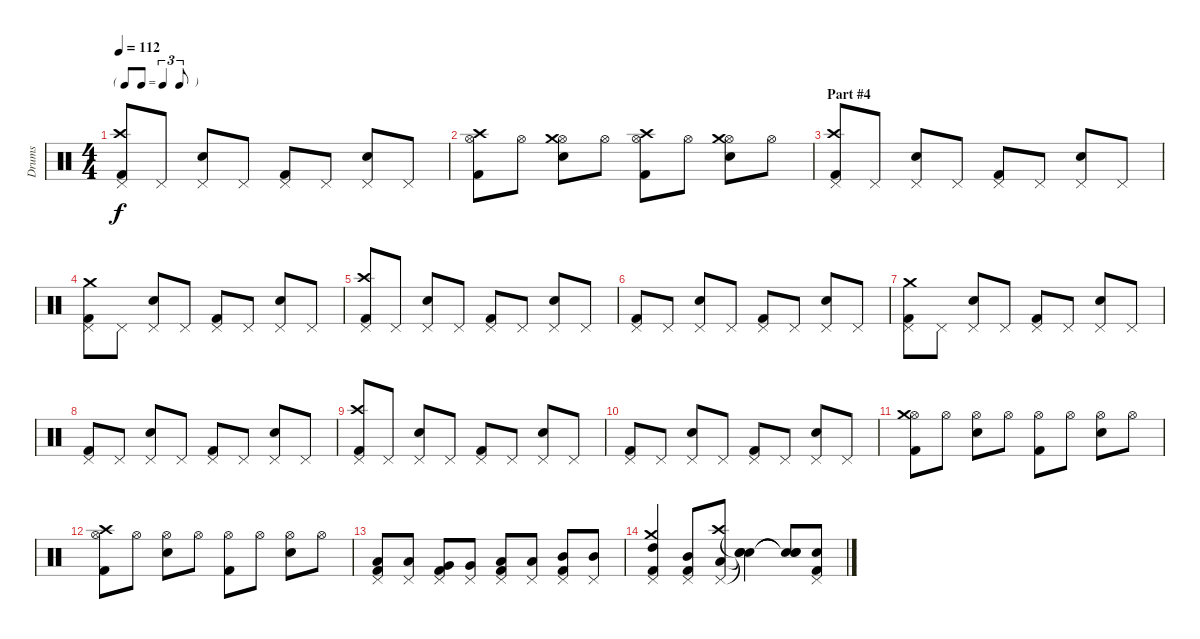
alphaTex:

\track ("Drums" "Drums") {instrument percussion}
\staff {score}
\articulation defaults
\ts (4 4)
\tf triplet8th
\tempo 112
\clef neutral
\ks c
("Pedal Hi-Hat (hit)" "Crash high (hit)" "Kick (hit) 2").8{dy f} "Pedal Hi-Hat (hit)".8 ("Pedal Hi-Hat (hit)" "Snare (hit) 2").8 "Pedal Hi-Hat (hit)".8 ("Pedal Hi-Hat (hit)" "Kick (hit) 2").8 "Pedal Hi-Hat (hit)".8 ("Pedal Hi-Hat (hit)" "Snare (hit) 2").8 "Pedal Hi-Hat (hit)".8 |
("Hi-Hat (open)" "Crash high (hit)" "Kick (hit) 2").8 "Hi-Hat (open)".8 ("Hi-Hat (open)" "Crash medium (hit)" "Snare (hit) 2").8 "Hi-Hat (open)".8 ("Hi-Hat (open)" "Crash high (hit)" "Kick (hit) 2").8 "Hi-Hat (open)".8 ("Hi-Hat (open)" "Crash medium (hit)" "Snare (hit) 2").8 "Hi-Hat (open)".8 |
\section ("" "Part #4")
("Pedal Hi-Hat (hit)" "Crash high (hit)" "Kick (hit) 2").8 "Pedal Hi-Hat (hit)".8 ("Pedal Hi-Hat (hit)" "Snare (hit) 2").8 "Pedal Hi-Hat (hit)".8 ("Pedal Hi-Hat (hit)" "Kick (hit) 2").8 "Pedal Hi-Hat (hit)".8 ("Pedal Hi-Hat (hit)" "Snare (hit) 2").8 "Pedal Hi-Hat (hit)".8 |
("Pedal Hi-Hat (hit)" "Crash medium (hit)" "Kick (hit) 2").8 "Pedal Hi-Hat (hit)".8 ("Pedal Hi-Hat (hit)" "Snare (hit) 2").8 "Pedal Hi-Hat (hit)".8 ("Pedal Hi-Hat (hit)" "Kick (hit) 2").8 "Pedal Hi-Hat (hit)".8 ("Pedal Hi-Hat (hit)" "Snare (hit) 2").8 "Pedal Hi-Hat (hit)".8 |
("Pedal Hi-Hat (hit)" "Crash high (hit)" "Kick (hit) 2").8 "Pedal Hi-Hat (hit)".8 ("Pedal Hi-Hat (hit)" "Snare (hit) 2").8 "Pedal Hi-Hat (hit)".8 ("Pedal Hi-Hat (hit)" "Kick (hit) 2").8 "Pedal Hi-Hat (hit)".8 ("Pedal Hi-Hat (hit)" "Snare (hit) 2").8 "Pedal Hi-Hat (hit)".8 |
("Pedal Hi-Hat (hit)" "Kick (hit) 2").8 "Pedal Hi-Hat (hit)".8 ("Pedal Hi-Hat (hit)" "Snare (hit) 2").8 "Pedal Hi-Hat (hit)".8 ("Pedal Hi-Hat (hit)" "Kick (hit) 2").8 "Pedal Hi-Hat (hit)".8 ("Pedal Hi-Hat (hit)" "Snare (hit) 2").8 "Pedal Hi-Hat (hit)".8 |
("Pedal Hi-Hat (hit)" "Crash medium (hit)" "Kick (hit) 2").8 "Pedal Hi-Hat (hit)".8 ("Pedal Hi-Hat (hit)" "Snare (hit) 2").8 "Pedal Hi-Hat (hit)".8 ("Pedal Hi-Hat (hit)" "Kick (hit) 2").8 "Pedal Hi-Hat (hit)".8 ("Pedal Hi-Hat (hit)" "Snare (hit) 2").8 "Pedal Hi-Hat (hit)".8 |
("Pedal Hi-Hat (hit)" "Kick (hit) 2").8 "Pedal Hi-Hat (hit)".8 ("Pedal Hi-Hat (hit)" "Snare (hit) 2").8 "Pedal Hi-Hat (hit)".8 ("Pedal Hi-Hat (hit)" "Kick (hit) 2").8 "Pedal Hi-Hat (hit)".8 ("Pedal Hi-Hat (hit)" "Snare (hit) 2").8 "Pedal Hi-Hat (hit)".8 |
("Pedal Hi-Hat (hit)" "Crash high (hit)" "Kick (hit) 2").8 "Pedal Hi-Hat (hit)".8 ("Pedal Hi-Hat (hit)" "Snare (hit) 2").8 "Pedal Hi-Hat (hit)".8 ("Pedal Hi-Hat (hit)" "Kick (hit) 2").8 "Pedal Hi-Hat (hit)".8 ("Pedal Hi-Hat (hit)" "Snare (hit) 2").8 "Pedal Hi-Hat (hit)".8 |
("Pedal Hi-Hat (hit)" "Kick (hit) 2").8 "Pedal Hi-Hat (hit)".8 ("Pedal Hi-Hat (hit)" "Snare (hit) 2").8 "Pedal Hi-Hat (hit)".8 ("Pedal Hi-Hat (hit)" "Kick (hit) 2").8 "Pedal Hi-Hat (hit)".8 ("Pedal Hi-Hat (hit)" "Snare (hit) 2").8 "Pedal Hi-Hat (hit)".8 |
("Hi-Hat (open)" "Crash medium (hit)" "Kick (hit) 2").8 "Hi-Hat (open)".8 ("Hi-Hat (open)" "Snare (hit) 2").8 "Hi-Hat (open)".8 ("Hi-Hat (open)" "Kick (hit) 2").8 "Hi-Hat (open)".8 ("Hi-Hat (open)" "Snare (hit) 2").8 "Hi-Hat (open)".8 |
("Hi-Hat (open)" "Crash high (hit)" "Kick (hit) 2").8 "Hi-Hat (open)".8 ("Hi-Hat (open)" "Snare (hit) 2").8 "Hi-Hat (open)".8 ("Hi-Hat (open)" "Kick (hit) 2").8 "Hi-Hat (open)".8 ("Hi-Hat (open)" "Snare (hit) 2").8 "Hi-Hat (open)".8 |
("Pedal Hi-Hat (hit)" "Low Floor Tom (hit)" "Kick (hit) 2").8 ("Pedal Hi-Hat (hit)" "Low Floor Tom (hit)").8 ("Pedal Hi-Hat (hit)" "Very Low Tom (hit)" "Kick (hit) 2").8 ("Pedal Hi-Hat (hit)" "Very Low Tom (hit)").8 ("Pedal Hi-Hat (hit)" "Low Tom (hit)" "Kick (hit) 2").8 ("Pedal Hi-Hat (hit)" "Low Tom (hit)").8 ("Pedal Hi-Hat (hit)" "Mid Tom (hit)" "Kick (hit) 2").8 ("Pedal Hi-Hat (hit)" "Mid Tom (hit)").8 |
("Pedal Hi-Hat (hit)" "Crash medium (hit)" "High Tom (hit)" "Kick (hit) 2").4 ("Pedal Hi-Hat (hit)" "Mid Tom (hit)" "Kick (hit) 2").8 ("Pedal Hi-Hat (hit)" "Crash high (hit)" "Low Tom (hit)").8 ("Snare (hit)"{t} "Snare (hit)"{t} "Snare (hit)"{t}).4 ("Snare (hit)"{t} "Snare (hit)"{t} "Snare (hit)"{t}).8 ("Pedal Hi-Hat (hit)" "Snare (hit) 2" "Kick (hit) 2").8
